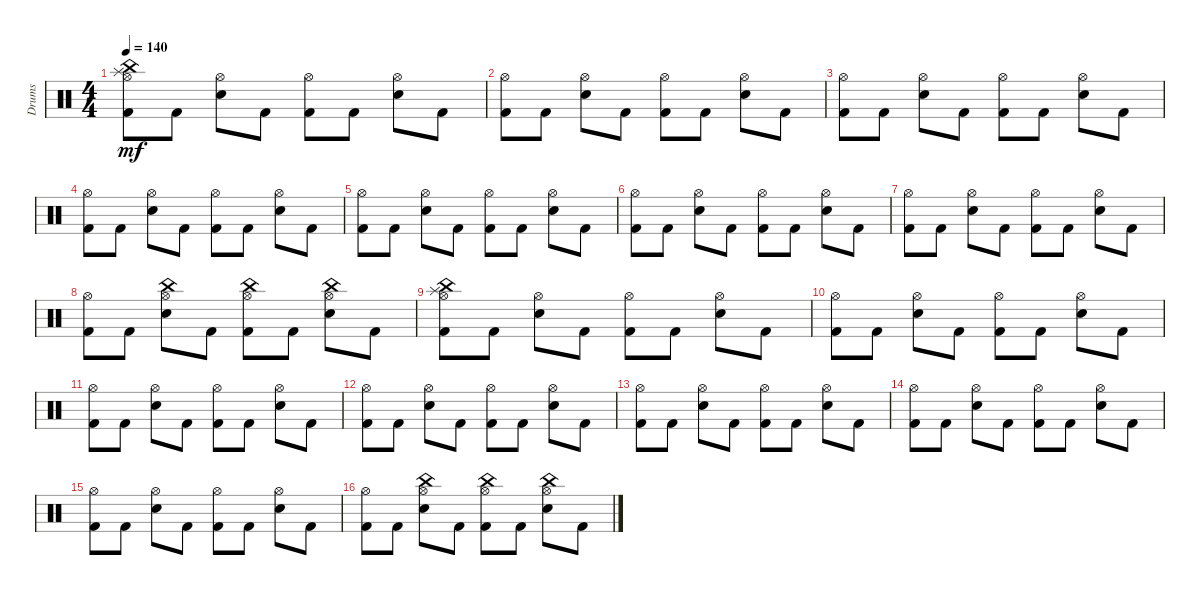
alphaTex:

\track ("Drums" "Drums") {instrument percussion}
\staff {score}
\articulation defaults
\ts (4 4)
\tempo 140
\clef neutral
\ks c
("Splash (hit)" "China (hit)" "Hi-Hat (open)" "Kick (hit) 2").8{dy mf} "Kick (hit) 2".8 ("Electric Snare (hit)" "Hi-Hat (open)").8 "Kick (hit) 2".8 ("Hi-Hat (open)" "Kick (hit) 2").8 "Kick (hit) 2".8 ("Hi-Hat (open)" "Electric Snare (hit)").8 "Kick (hit) 2".8 |
("Hi-Hat (open)" "Kick (hit) 2").8 "Kick (hit) 2".8 ("Hi-Hat (open)" "Electric Snare (hit)").8 "Kick (hit) 2".8 ("Hi-Hat (open)" "Kick (hit) 2").8 "Kick (hit) 2".8 ("Hi-Hat (open)" "Electric Snare (hit)").8 "Kick (hit) 2".8 |
("Hi-Hat (open)" "Kick (hit) 2").8 "Kick (hit) 2".8 ("Hi-Hat (open)" "Electric Snare (hit)").8 "Kick (hit) 2".8 ("Hi-Hat (open)" "Kick (hit) 2").8 "Kick (hit) 2".8 ("Hi-Hat (open)" "Electric Snare (hit)").8 "Kick (hit) 2".8 |
("Hi-Hat (open)" "Kick (hit) 2").8 "Kick (hit) 2".8 ("Hi-Hat (open)" "Electric Snare (hit)").8 "Kick (hit) 2".8 ("Hi-Hat (open)" "Kick (hit) 2").8 "Kick (hit) 2".8 ("Hi-Hat (open)" "Electric Snare (hit)").8 "Kick (hit) 2".8 |
("Hi-Hat (open)" "Kick (hit) 2").8 "Kick (hit) 2".8 ("Electric Snare (hit)" "Hi-Hat (open)").8 "Kick (hit) 2".8 ("Hi-Hat (open)" "Kick (hit) 2").8 "Kick (hit) 2".8 ("Hi-Hat (open)" "Electric Snare (hit)").8 "Kick (hit) 2".8 |
("Hi-Hat (open)" "Kick (hit) 2").8 "Kick (hit) 2".8 ("Electric Snare (hit)" "Hi-Hat (open)").8 "Kick (hit) 2".8 ("Hi-Hat (open)" "Kick (hit) 2").8 "Kick (hit) 2".8 ("Hi-Hat (open)" "Electric Snare (hit)").8 "Kick (hit) 2".8 |
("Hi-Hat (open)" "Kick (hit) 2").8 "Kick (hit) 2".8 ("Electric Snare (hit)" "Hi-Hat (open)").8 "Kick (hit) 2".8 ("Kick (hit) 2" "Hi-Hat (open)").8 "Kick (hit) 2".8 ("Hi-Hat (open)" "Electric Snare (hit)").8 "Kick (hit) 2".8 |
("Hi-Hat (open)" "Kick (hit) 2").8 "Kick (hit) 2".8 ("Electric Snare (hit)" "Hi-Hat (open)" "China (hit)").8 "Kick (hit) 2".8 ("China (hit)" "Kick (hit) 2" "Hi-Hat (open)").8 "Kick (hit) 2".8 ("Electric Snare (hit)" "Hi-Hat (open)" "China (hit)").8 "Kick (hit) 2".8 |
("Splash (hit)" "China (hit)" "Hi-Hat (open)" "Kick (hit) 2").8 "Kick (hit) 2".8 ("Electric Snare (hit)" "Hi-Hat (open)").8 "Kick (hit) 2".8 ("Hi-Hat (open)" "Kick (hit) 2").8 "Kick (hit) 2".8 ("Hi-Hat (open)" "Electric Snare (hit)").8 "Kick (hit) 2".8 |
("Hi-Hat (open)" "Kick (hit) 2").8 "Kick (hit) 2".8 ("Hi-Hat (open)" "Electric Snare (hit)").8 "Kick (hit) 2".8 ("Hi-Hat (open)" "Kick (hit) 2").8 "Kick (hit) 2".8 ("Hi-Hat (open)" "Electric Snare (hit)").8 "Kick (hit) 2".8 |
("Hi-Hat (open)" "Kick (hit) 2").8 "Kick (hit) 2".8 ("Hi-Hat (open)" "Electric Snare (hit)").8 "Kick (hit) 2".8 ("Hi-Hat (open)" "Kick (hit) 2").8 "Kick (hit) 2".8 ("Hi-Hat (open)" "Electric Snare (hit)").8 "Kick (hit) 2".8 |
("Hi-Hat (open)" "Kick (hit) 2").8 "Kick (hit) 2".8 ("Hi-Hat (open)" "Electric Snare (hit)").8 "Kick (hit) 2".8 ("Hi-Hat (open)" "Kick (hit) 2").8 "Kick (hit) 2".8 ("Hi-Hat (open)" "Electric Snare (hit)").8 "Kick (hit) 2".8 |
("Hi-Hat (open)" "Kick (hit) 2").8 "Kick (hit) 2".8 ("Electric Snare (hit)" "Hi-Hat (open)").8 "Kick (hit) 2".8 ("Hi-Hat (open)" "Kick (hit) 2").8 "Kick (hit) 2".8 ("Electric Snare (hit)" "Hi-Hat (open)").8 "Kick (hit) 2".8 |
("Hi-Hat (open)" "Kick (hit) 2").8 "Kick (hit) 2".8 ("Electric Snare (hit)" "Hi-Hat (open)").8 "Kick (hit) 2".8 ("Hi-Hat (open)" "Kick (hit) 2").8 "Kick (hit) 2".8 ("Hi-Hat (open)" "Electric Snare (hit)").8 "Kick (hit) 2".8 |
("Hi-Hat (open)" "Kick (hit) 2").8 "Kick (hit) 2".8 ("Electric Snare (hit)" "Hi-Hat (open)").8 "Kick (hit) 2".8 ("Kick (hit) 2" "Hi-Hat (open)").8 "Kick (hit) 2".8 ("Hi-Hat (open)" "Electric Snare (hit)").8 "Kick (hit) 2".8 |
("Hi-Hat (open)" "Kick (hit) 2").8 "Kick (hit) 2".8 ("Electric Snare (hit)" "Hi-Hat (open)" "China (hit)").8 "Kick (hit) 2".8 ("China (hit)" "Kick (hit) 2" "Hi-Hat (open)").8 "Kick (hit) 2".8 ("Electric Snare (hit)" "Hi-Hat (open)" "China (hit)").8 "Kick (hit) 2".8
